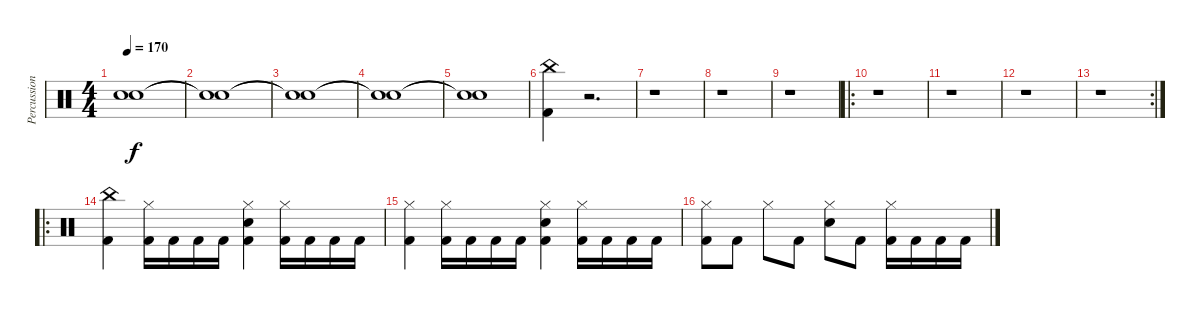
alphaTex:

\track ("Percussion" "Percussion") {instrument percussion}
\staff {score}
\articulation defaults
\ts (4 4)
\tempo 170
\clef neutral
\ks c
("Snare (hit)"{t} "Snare (hit)"{t}).1{dy f} |
("Snare (hit)"{t} "Snare (hit)"{t}).1 |
("Snare (hit)"{t} "Snare (hit)"{t}).1 |
("Snare (hit)"{t} "Snare (hit)"{t}).1 |
("Snare (hit)"{t} "Snare (hit)"{t}).1 |
("Kick (hit) 2" "China (hit)").4 r.2{d} |
r.1 |
r.1 |
r.1 |
\ro
r.1 |
r.1 |
r.1 |
\rc 2
r.1 |
\ro
("China (hit)" "Kick (hit) 2").4 ("Hi-Hat (closed)" "Kick (hit) 2").16 "Kick (hit) 2".16 "Kick (hit) 2".16 "Kick (hit) 2".16 ("Hi-Hat (closed)" "Snare (hit) 2" "Kick (hit) 2").4 ("Hi-Hat (closed)" "Kick (hit) 2").16 "Kick (hit) 2".16 "Kick (hit) 2".16 "Kick (hit) 2".16 |
("Hi-Hat (closed)" "Kick (hit) 2").4 ("Hi-Hat (closed)" "Kick (hit) 2").16 "Kick (hit) 2".16 "Kick (hit) 2".16 "Kick (hit) 2".16 ("Hi-Hat (closed)" "Snare (hit) 2" "Kick (hit) 2").4 ("Hi-Hat (closed)" "Kick (hit) 2").16 "Kick (hit) 2".16 "Kick (hit) 2".16 "Kick (hit) 2".16 |
("Hi-Hat (closed)" "Kick (hit) 2").8 "Kick (hit) 2".8 "Hi-Hat (closed)".8 "Kick (hit) 2".8 ("Hi-Hat (closed)" "Snare (hit) 2").8 "Kick (hit) 2".8 ("Hi-Hat (closed)" "Kick (hit) 2").16 "Kick (hit) 2".16 "Kick (hit) 2".16 "Kick (hit) 2".16
